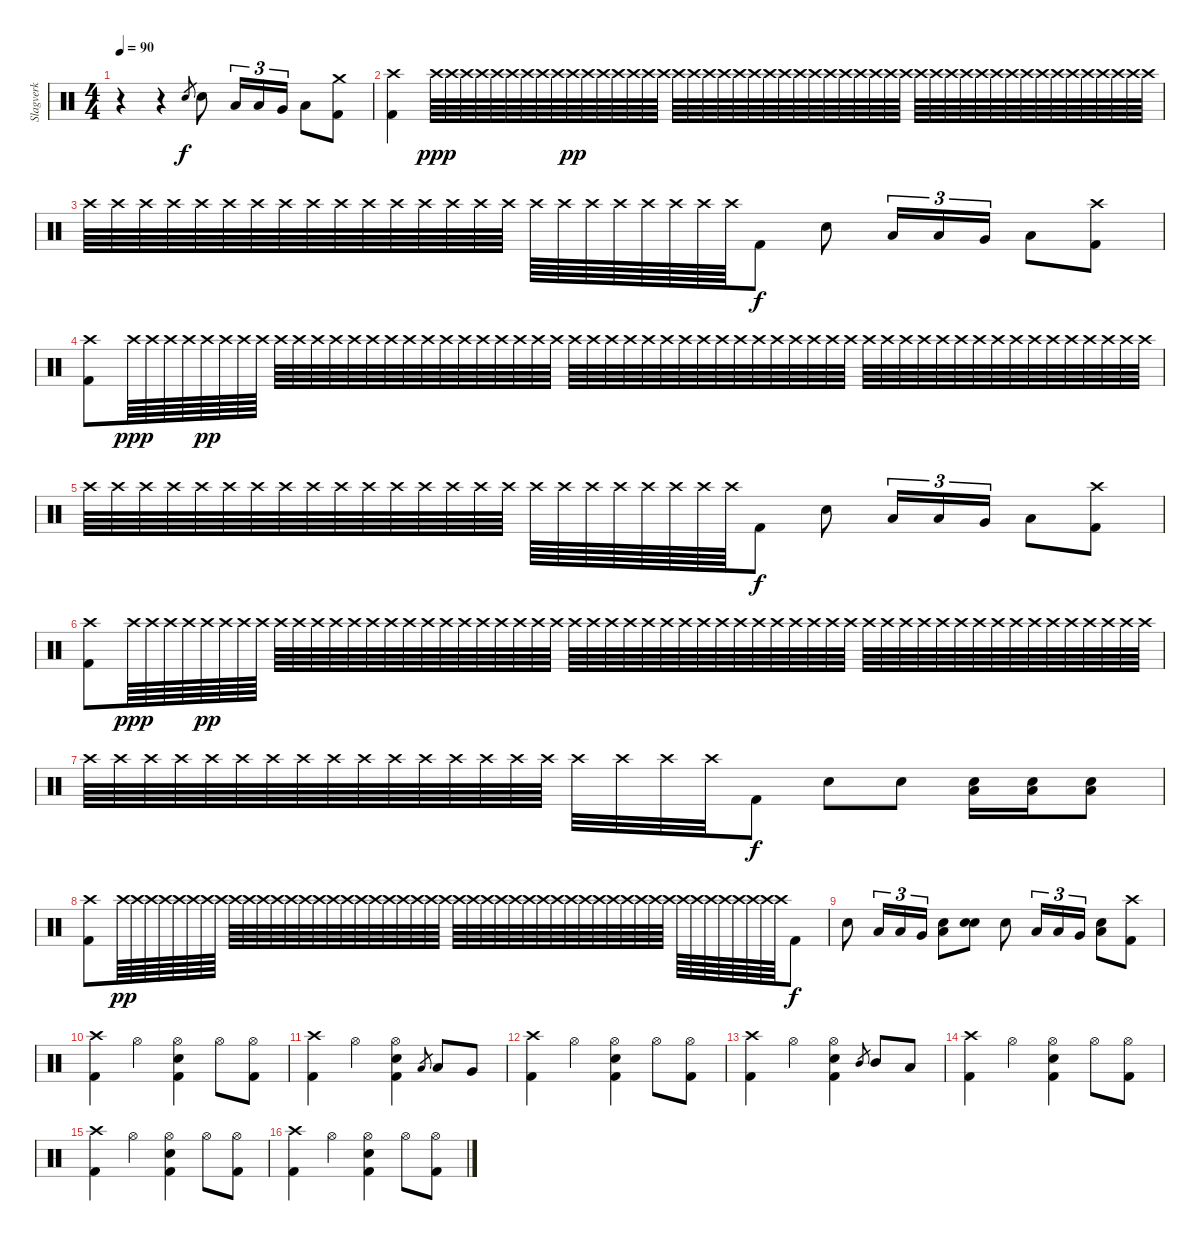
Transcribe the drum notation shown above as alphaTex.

\track ("Slagverk" "Slagverk") {instrument percussion}
\staff {score}
\articulation defaults
\ts (4 4)
\tempo 90
\clef neutral
\ks c
r.4{dy f} r.4 "Electric Snare (hit)".8{gr} "Electric Snare (hit)".8 "Low Tom (hit)".16{tu (3 2)} "Low Tom (hit)".16{tu (3 2)} "Very Low Tom (hit)".16{tu (3 2)} "Low Floor Tom (hit)".8 ("Crash medium (hit)" "Kick (hit) 2").8 |
("Crash high (hit)" "Kick (hit) 2").4 "Crash high (hit)".64{dy ppp} "Crash high (hit)".64 "Crash high (hit)".64 "Crash high (hit)".64 "Crash high (hit)".64 "Crash high (hit)".64 "Crash high (hit)".64 "Crash high (hit)".64 "Crash high (hit)".64 "Crash high (hit)".64{dy pp} "Crash high (hit)".64 "Crash high (hit)".64 "Crash high (hit)".64 "Crash high (hit)".64 "Crash high (hit)".64 "Crash high (hit)".64 "Crash high (hit)".64 "Crash high (hit)".64 "Crash high (hit)".64 "Crash high (hit)".64 "Crash high (hit)".64 "Crash high (hit)".64 "Crash high (hit)".64 "Crash high (hit)".64 "Crash high (hit)".64 "Crash high (hit)".64 "Crash high (hit)".64 "Crash high (hit)".64 "Crash high (hit)".64 "Crash high (hit)".64 "Crash high (hit)".64 "Crash high (hit)".64 "Crash high (hit)".64 "Crash high (hit)".64 "Crash high (hit)".64 "Crash high (hit)".64 "Crash high (hit)".64 "Crash high (hit)".64 "Crash high (hit)".64 "Crash high (hit)".64 "Crash high (hit)".64 "Crash high (hit)".64 "Crash high (hit)".64 "Crash high (hit)".64 "Crash high (hit)".64 "Crash high (hit)".64 "Crash high (hit)".64 "Crash high (hit)".64 |
"Crash high (hit)".64 "Crash high (hit)".64 "Crash high (hit)".64 "Crash high (hit)".64 "Crash high (hit)".64 "Crash high (hit)".64 "Crash high (hit)".64 "Crash high (hit)".64 "Crash high (hit)".64 "Crash high (hit)".64 "Crash high (hit)".64 "Crash high (hit)".64 "Crash high (hit)".64 "Crash high (hit)".64 "Crash high (hit)".64 "Crash high (hit)".64 "Crash high (hit)".64 "Crash high (hit)".64 "Crash high (hit)".64 "Crash high (hit)".64 "Crash high (hit)".64 "Crash high (hit)".64 "Crash high (hit)".64 "Crash high (hit)".64 "Kick (hit) 2".8{dy f} "Electric Snare (hit)".8 "Low Tom (hit)".16{tu (3 2)} "Low Tom (hit)".16{tu (3 2)} "Very Low Tom (hit)".16{tu (3 2)} "Low Floor Tom (hit)".8 ("Crash high (hit)" "Kick (hit) 2").8 |
("Crash high (hit)" "Kick (hit) 2").8 "Crash high (hit)".64{dy ppp} "Crash high (hit)".64 "Crash high (hit)".64 "Crash high (hit)".64 "Crash high (hit)".64{dy pp} "Crash high (hit)".64 "Crash high (hit)".64 "Crash high (hit)".64 "Crash high (hit)".64 "Crash high (hit)".64 "Crash high (hit)".64 "Crash high (hit)".64 "Crash high (hit)".64 "Crash high (hit)".64 "Crash high (hit)".64 "Crash high (hit)".64 "Crash high (hit)".64 "Crash high (hit)".64 "Crash high (hit)".64 "Crash high (hit)".64 "Crash high (hit)".64 "Crash high (hit)".64 "Crash high (hit)".64 "Crash high (hit)".64 "Crash high (hit)".64 "Crash high (hit)".64 "Crash high (hit)".64 "Crash high (hit)".64 "Crash high (hit)".64 "Crash high (hit)".64 "Crash high (hit)".64 "Crash high (hit)".64 "Crash high (hit)".64 "Crash high (hit)".64 "Crash high (hit)".64 "Crash high (hit)".64 "Crash high (hit)".64 "Crash high (hit)".64 "Crash high (hit)".64 "Crash high (hit)".64 "Crash high (hit)".64 "Crash high (hit)".64 "Crash high (hit)".64 "Crash high (hit)".64 "Crash high (hit)".64 "Crash high (hit)".64 "Crash high (hit)".64 "Crash high (hit)".64 "Crash high (hit)".64 "Crash high (hit)".64 "Crash high (hit)".64 "Crash high (hit)".64 "Crash high (hit)".64 "Crash high (hit)".64 "Crash high (hit)".64 "Crash high (hit)".64 |
"Crash high (hit)".64 "Crash high (hit)".64 "Crash high (hit)".64 "Crash high (hit)".64 "Crash high (hit)".64 "Crash high (hit)".64 "Crash high (hit)".64 "Crash high (hit)".64 "Crash high (hit)".64 "Crash high (hit)".64 "Crash high (hit)".64 "Crash high (hit)".64 "Crash high (hit)".64 "Crash high (hit)".64 "Crash high (hit)".64 "Crash high (hit)".64 "Crash high (hit)".64 "Crash high (hit)".64 "Crash high (hit)".64 "Crash high (hit)".64 "Crash high (hit)".64 "Crash high (hit)".64 "Crash high (hit)".64 "Crash high (hit)".64 "Kick (hit) 2".8{dy f} "Electric Snare (hit)".8 "Low Tom (hit)".16{tu (3 2)} "Low Tom (hit)".16{tu (3 2)} "Very Low Tom (hit)".16{tu (3 2)} "Low Floor Tom (hit)".8 ("Crash high (hit)" "Kick (hit) 2").8 |
("Crash high (hit)" "Kick (hit) 2").8 "Crash high (hit)".64{dy ppp} "Crash high (hit)".64 "Crash high (hit)".64 "Crash high (hit)".64 "Crash high (hit)".64{dy pp} "Crash high (hit)".64 "Crash high (hit)".64 "Crash high (hit)".64 "Crash high (hit)".64 "Crash high (hit)".64 "Crash high (hit)".64 "Crash high (hit)".64 "Crash high (hit)".64 "Crash high (hit)".64 "Crash high (hit)".64 "Crash high (hit)".64 "Crash high (hit)".64 "Crash high (hit)".64 "Crash high (hit)".64 "Crash high (hit)".64 "Crash high (hit)".64 "Crash high (hit)".64 "Crash high (hit)".64 "Crash high (hit)".64 "Crash high (hit)".64 "Crash high (hit)".64 "Crash high (hit)".64 "Crash high (hit)".64 "Crash high (hit)".64 "Crash high (hit)".64 "Crash high (hit)".64 "Crash high (hit)".64 "Crash high (hit)".64 "Crash high (hit)".64 "Crash high (hit)".64 "Crash high (hit)".64 "Crash high (hit)".64 "Crash high (hit)".64 "Crash high (hit)".64 "Crash high (hit)".64 "Crash high (hit)".64 "Crash high (hit)".64 "Crash high (hit)".64 "Crash high (hit)".64 "Crash high (hit)".64 "Crash high (hit)".64 "Crash high (hit)".64 "Crash high (hit)".64 "Crash high (hit)".64 "Crash high (hit)".64 "Crash high (hit)".64 "Crash high (hit)".64 "Crash high (hit)".64 "Crash high (hit)".64 "Crash high (hit)".64 "Crash high (hit)".64 |
"Crash high (hit)".64 "Crash high (hit)".64 "Crash high (hit)".64 "Crash high (hit)".64 "Crash high (hit)".64 "Crash high (hit)".64 "Crash high (hit)".64 "Crash high (hit)".64 "Crash high (hit)".64 "Crash high (hit)".64 "Crash high (hit)".64 "Crash high (hit)".64 "Crash high (hit)".64 "Crash high (hit)".64 "Crash high (hit)".64 "Crash high (hit)".64 "Crash high (hit)".32 "Crash high (hit)".32 "Crash high (hit)".32 "Crash high (hit)".32 "Kick (hit) 2".8{dy f} "Electric Snare (hit)".8 "Electric Snare (hit)".8 ("Low Tom (hit)" "Electric Snare (hit)").16 ("Low Tom (hit)" "Electric Snare (hit)").16 ("Low Floor Tom (hit)" "Electric Snare (hit)").8 |
("Crash high (hit)" "Kick (hit) 2").8 "Crash high (hit)".64{dy pp} "Crash high (hit)".64 "Crash high (hit)".64 "Crash high (hit)".64 "Crash high (hit)".64 "Crash high (hit)".64 "Crash high (hit)".64 "Crash high (hit)".64 "Crash high (hit)".64 "Crash high (hit)".64 "Crash high (hit)".64 "Crash high (hit)".64 "Crash high (hit)".64 "Crash high (hit)".64 "Crash high (hit)".64 "Crash high (hit)".64 "Crash high (hit)".64 "Crash high (hit)".64 "Crash high (hit)".64 "Crash high (hit)".64 "Crash high (hit)".64 "Crash high (hit)".64 "Crash high (hit)".64 "Crash high (hit)".64 "Crash high (hit)".64 "Crash high (hit)".64 "Crash high (hit)".64 "Crash high (hit)".64 "Crash high (hit)".64 "Crash high (hit)".64 "Crash high (hit)".64 "Crash high (hit)".64 "Crash high (hit)".64 "Crash high (hit)".64 "Crash high (hit)".64 "Crash high (hit)".64 "Crash high (hit)".64 "Crash high (hit)".64 "Crash high (hit)".64 "Crash high (hit)".64 "Crash high (hit)".64 "Crash high (hit)".64 "Crash high (hit)".64 "Crash high (hit)".64 "Crash high (hit)".64 "Crash high (hit)".64 "Crash high (hit)".64 "Crash high (hit)".64 "Kick (hit) 2".8{dy f} |
"Electric Snare (hit)".8 "Low Tom (hit)".16{tu (3 2)} "Low Tom (hit)".16{tu (3 2)} "Very Low Tom (hit)".16{tu (3 2)} ("Electric Snare (hit)" "Low Floor Tom (hit)").8 ("Electric Snare (hit)" "Electric Snare (hit)").8 "Electric Snare (hit)".8 "Low Tom (hit)".16{tu (3 2)} "Low Tom (hit)".16{tu (3 2)} "Very Low Tom (hit)".16{tu (3 2)} ("Electric Snare (hit)" "Low Floor Tom (hit)").8 ("Crash high (hit)" "Kick (hit) 2").8 |
("Crash high (hit)" "Kick (hit) 2").4 "Hi-Hat (open)".4 ("Hi-Hat (open)" "Electric Snare (hit)" "Kick (hit) 2").4 "Hi-Hat (open)".8 ("Hi-Hat (open)" "Kick (hit) 2").8 |
("Crash high (hit)" "Kick (hit) 2").4 "Hi-Hat (open)".4 ("Hi-Hat (open)" "Electric Snare (hit)" "Kick (hit) 2").4 "Low Tom (hit)".8{gr} "Low Tom (hit)".8 "Very Low Tom (hit)".8 |
("Crash high (hit)" "Kick (hit) 2").4 "Hi-Hat (open)".4 ("Hi-Hat (open)" "Electric Snare (hit)" "Kick (hit) 2").4 "Hi-Hat (open)".8 ("Hi-Hat (open)" "Kick (hit) 2").8 |
("Crash high (hit)" "Kick (hit) 2").4 "Hi-Hat (open)".4 ("Hi-Hat (open)" "Electric Snare (hit)" "Kick (hit) 2").4 "Mid Tom (hit)".8{gr} "Mid Tom (hit)".8 "Low Tom (hit)".8 |
("Crash high (hit)" "Kick (hit) 2").4 "Hi-Hat (open)".4 ("Hi-Hat (open)" "Electric Snare (hit)" "Kick (hit) 2").4 "Hi-Hat (open)".8 ("Hi-Hat (open)" "Kick (hit) 2").8 |
("Crash high (hit)" "Kick (hit) 2").4 "Hi-Hat (open)".4 ("Hi-Hat (open)" "Electric Snare (hit)" "Kick (hit) 2").4 "Hi-Hat (open)".8 ("Hi-Hat (open)" "Kick (hit) 2").8 |
("Crash high (hit)" "Kick (hit) 2").4 "Hi-Hat (open)".4 ("Hi-Hat (open)" "Electric Snare (hit)" "Kick (hit) 2").4 "Hi-Hat (open)".8 ("Hi-Hat (open)" "Kick (hit) 2").8
